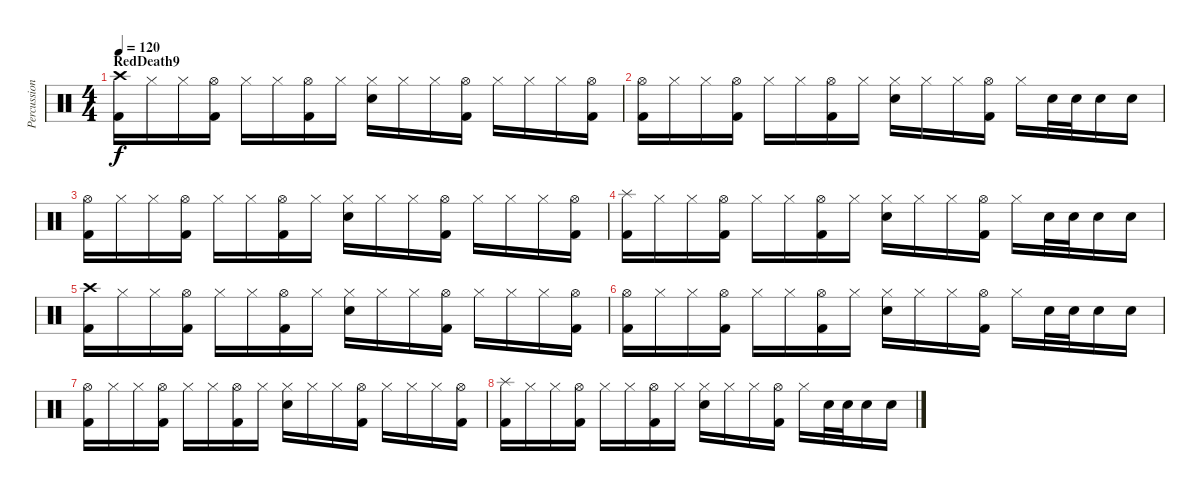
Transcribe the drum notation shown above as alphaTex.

\track ("Percussion" "Percussion") {instrument percussion}
\staff {score}
\articulation defaults
\ts (4 4)
\section ("" "RedDeath9")
\tempo 120
\clef neutral
\ks c
("Crash high (hit)" "Kick (hit) 2").16{dy f} "Hi-Hat (closed)".16 "Hi-Hat (closed)".16 ("Hi-Hat (open)" "Kick (hit) 2").16 "Hi-Hat (closed)".16 "Hi-Hat (closed)".16 ("Hi-Hat (open)" "Kick (hit) 2").16 "Hi-Hat (closed)".16 ("Hi-Hat (closed)" "Electric Snare (hit)").16 "Hi-Hat (closed)".16 "Hi-Hat (closed)".16 ("Hi-Hat (open)" "Kick (hit) 2").16 "Hi-Hat (closed)".16 "Hi-Hat (closed)".16 "Hi-Hat (closed)".16 ("Hi-Hat (open)" "Kick (hit) 2").16 |
("Hi-Hat (open)" "Kick (hit) 2").16 "Hi-Hat (closed)".16 "Hi-Hat (closed)".16 ("Hi-Hat (open)" "Kick (hit) 2").16 "Hi-Hat (closed)".16 "Hi-Hat (closed)".16 ("Hi-Hat (open)" "Kick (hit) 2").16 "Hi-Hat (closed)".16 ("Hi-Hat (closed)" "Electric Snare (hit)").16 "Hi-Hat (closed)".16 "Hi-Hat (closed)".16 ("Hi-Hat (open)" "Kick (hit) 2").16 "Hi-Hat (closed)".16 "Electric Snare (hit)".32 "Electric Snare (hit)".32 "Electric Snare (hit)".16 "Electric Snare (hit)".16 |
("Hi-Hat (open)" "Kick (hit) 2").16 "Hi-Hat (closed)".16 "Hi-Hat (closed)".16 ("Hi-Hat (open)" "Kick (hit) 2").16 "Hi-Hat (closed)".16 "Hi-Hat (closed)".16 ("Hi-Hat (open)" "Kick (hit) 2").16 "Hi-Hat (closed)".16 ("Hi-Hat (closed)" "Electric Snare (hit)").16 "Hi-Hat (closed)".16 "Hi-Hat (closed)".16 ("Hi-Hat (open)" "Kick (hit) 2").16 "Hi-Hat (closed)".16 "Hi-Hat (closed)".16 "Hi-Hat (closed)".16 ("Hi-Hat (open)" "Kick (hit) 2").16 |
("Splash (hit)" "Kick (hit) 2").16 "Hi-Hat (closed)".16 "Hi-Hat (closed)".16 ("Hi-Hat (open)" "Kick (hit) 2").16 "Hi-Hat (closed)".16 "Hi-Hat (closed)".16 ("Hi-Hat (open)" "Kick (hit) 2").16 "Hi-Hat (closed)".16 ("Hi-Hat (closed)" "Electric Snare (hit)").16 "Hi-Hat (closed)".16 "Hi-Hat (closed)".16 ("Hi-Hat (open)" "Kick (hit) 2").16 "Hi-Hat (closed)".16 "Electric Snare (hit)".32 "Electric Snare (hit)".32 "Electric Snare (hit)".16 "Electric Snare (hit)".16 |
("Crash high (hit)" "Kick (hit) 2").16 "Hi-Hat (closed)".16 "Hi-Hat (closed)".16 ("Hi-Hat (open)" "Kick (hit) 2").16 "Hi-Hat (closed)".16 "Hi-Hat (closed)".16 ("Hi-Hat (open)" "Kick (hit) 2").16 "Hi-Hat (closed)".16 ("Hi-Hat (closed)" "Electric Snare (hit)").16 "Hi-Hat (closed)".16 "Hi-Hat (closed)".16 ("Hi-Hat (open)" "Kick (hit) 2").16 "Hi-Hat (closed)".16 "Hi-Hat (closed)".16 "Hi-Hat (closed)".16 ("Hi-Hat (open)" "Kick (hit) 2").16 |
("Hi-Hat (open)" "Kick (hit) 2").16 "Hi-Hat (closed)".16 "Hi-Hat (closed)".16 ("Hi-Hat (open)" "Kick (hit) 2").16 "Hi-Hat (closed)".16 "Hi-Hat (closed)".16 ("Hi-Hat (open)" "Kick (hit) 2").16 "Hi-Hat (closed)".16 ("Hi-Hat (closed)" "Electric Snare (hit)").16 "Hi-Hat (closed)".16 "Hi-Hat (closed)".16 ("Hi-Hat (open)" "Kick (hit) 2").16 "Hi-Hat (closed)".16 "Electric Snare (hit)".32 "Electric Snare (hit)".32 "Electric Snare (hit)".16 "Electric Snare (hit)".16 |
("Hi-Hat (open)" "Kick (hit) 2").16 "Hi-Hat (closed)".16 "Hi-Hat (closed)".16 ("Hi-Hat (open)" "Kick (hit) 2").16 "Hi-Hat (closed)".16 "Hi-Hat (closed)".16 ("Hi-Hat (open)" "Kick (hit) 2").16 "Hi-Hat (closed)".16 ("Hi-Hat (closed)" "Electric Snare (hit)").16 "Hi-Hat (closed)".16 "Hi-Hat (closed)".16 ("Hi-Hat (open)" "Kick (hit) 2").16 "Hi-Hat (closed)".16 "Hi-Hat (closed)".16 "Hi-Hat (closed)".16 ("Hi-Hat (open)" "Kick (hit) 2").16 |
("Splash (hit)" "Kick (hit) 2").16 "Hi-Hat (closed)".16 "Hi-Hat (closed)".16 ("Hi-Hat (open)" "Kick (hit) 2").16 "Hi-Hat (closed)".16 "Hi-Hat (closed)".16 ("Hi-Hat (open)" "Kick (hit) 2").16 "Hi-Hat (closed)".16 ("Hi-Hat (closed)" "Electric Snare (hit)").16 "Hi-Hat (closed)".16 "Hi-Hat (closed)".16 ("Hi-Hat (open)" "Kick (hit) 2").16 "Hi-Hat (closed)".16 "Electric Snare (hit)".32 "Electric Snare (hit)".32 "Electric Snare (hit)".16 "Electric Snare (hit)".16
